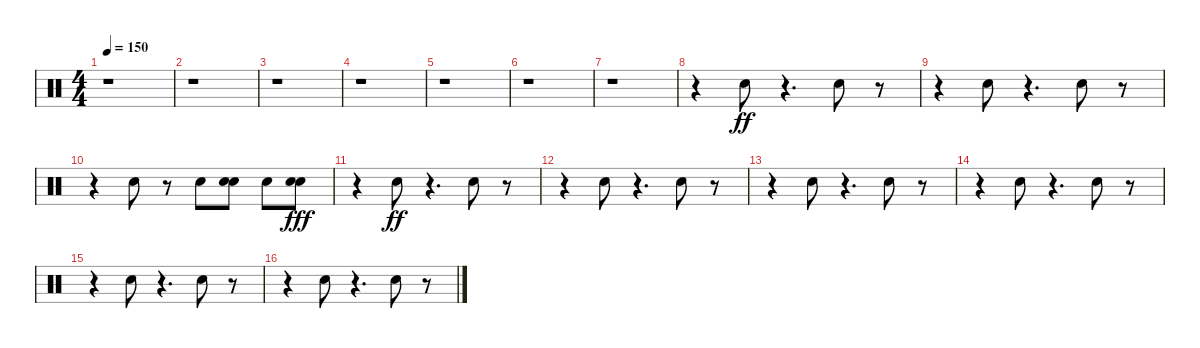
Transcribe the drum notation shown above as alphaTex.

\track "" {instrument percussion}
\staff {score}
\articulation defaults
\ts (4 4)
\tempo 150
\clef neutral
\ks c
r.1{dy fff} |
r.1 |
r.1 |
r.1 |
r.1 |
r.1 |
r.1 |
r.4 "Electric Snare (hit)".8{dy ff} r.4{d} "Electric Snare (hit)".8 r.8 |
r.4 "Electric Snare (hit)".8 r.4{d} "Electric Snare (hit)".8 r.8 |
r.4 "Electric Snare (hit)".8 r.8 "Electric Snare (hit)".8 ("Electric Snare (hit)" "Electric Snare (hit)").8 "Electric Snare (hit)".8 ("Electric Snare (hit)" "Electric Snare (hit)").8{dy fff} |
r.4 "Electric Snare (hit)".8{dy ff} r.4{d} "Electric Snare (hit)".8 r.8 |
r.4 "Electric Snare (hit)".8 r.4{d} "Electric Snare (hit)".8 r.8 |
r.4 "Electric Snare (hit)".8 r.4{d} "Electric Snare (hit)".8 r.8 |
r.4 "Electric Snare (hit)".8 r.4{d} "Electric Snare (hit)".8 r.8 |
r.4 "Electric Snare (hit)".8 r.4{d} "Electric Snare (hit)".8 r.8 |
r.4 "Electric Snare (hit)".8 r.4{d} "Electric Snare (hit)".8 r.8
